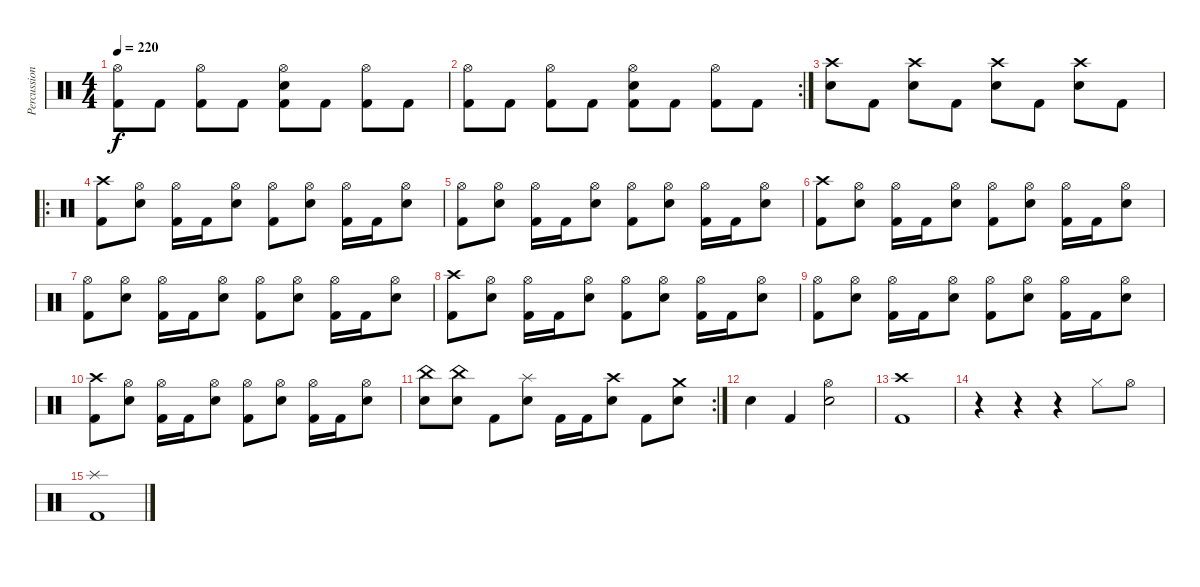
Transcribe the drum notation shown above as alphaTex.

\track ("Percussions" "Percussion") {instrument percussion}
\staff {score}
\articulation defaults
\ts (4 4)
\tempo 220
\clef neutral
\ks c
("Hi-Hat (open)" "Kick (hit) 2").8{dy f} "Kick (hit) 2".8 ("Hi-Hat (open)" "Kick (hit) 2").8 "Kick (hit) 2".8 ("Hi-Hat (open)" "Snare (hit) 2" "Kick (hit) 2").8 "Kick (hit) 2".8 ("Hi-Hat (open)" "Kick (hit) 2").8 "Kick (hit) 2".8 |
\rc 2
("Hi-Hat (open)" "Kick (hit) 2").8 "Kick (hit) 2".8 ("Hi-Hat (open)" "Kick (hit) 2").8 "Kick (hit) 2".8 ("Hi-Hat (open)" "Snare (hit) 2" "Kick (hit) 2").8 "Kick (hit) 2".8 ("Hi-Hat (open)" "Kick (hit) 2").8 "Kick (hit) 2".8 |
("Crash high (hit)" "Snare (hit) 2").8 "Kick (hit) 2".8 ("Crash high (hit)" "Snare (hit) 2").8 "Kick (hit) 2".8 ("Crash high (hit)" "Snare (hit) 2").8 "Kick (hit) 2".8 ("Crash high (hit)" "Snare (hit) 2").8 "Kick (hit) 2".8 |
\ro
("Crash high (hit)" "Kick (hit) 2").8 ("Hi-Hat (open)" "Snare (hit) 2").8 ("Hi-Hat (open)" "Kick (hit) 2").16 "Kick (hit) 2".16 ("Hi-Hat (open)" "Snare (hit) 2").8 ("Hi-Hat (open)" "Kick (hit) 2").8 ("Hi-Hat (open)" "Snare (hit) 2").8 ("Hi-Hat (open)" "Kick (hit) 2").16 "Kick (hit) 2".16 ("Hi-Hat (open)" "Snare (hit) 2").8 |
("Hi-Hat (open)" "Kick (hit) 2").8 ("Hi-Hat (open)" "Snare (hit) 2").8 ("Hi-Hat (open)" "Kick (hit) 2").16 "Kick (hit) 2".16 ("Hi-Hat (open)" "Snare (hit) 2").8 ("Hi-Hat (open)" "Kick (hit) 2").8 ("Hi-Hat (open)" "Snare (hit) 2").8 ("Hi-Hat (open)" "Kick (hit) 2").16 "Kick (hit) 2".16 ("Hi-Hat (open)" "Snare (hit) 2").8 |
("Crash high (hit)" "Kick (hit) 2").8 ("Hi-Hat (open)" "Snare (hit) 2").8 ("Hi-Hat (open)" "Kick (hit) 2").16 "Kick (hit) 2".16 ("Hi-Hat (open)" "Snare (hit) 2").8 ("Hi-Hat (open)" "Kick (hit) 2").8 ("Hi-Hat (open)" "Snare (hit) 2").8 ("Hi-Hat (open)" "Kick (hit) 2").16 "Kick (hit) 2".16 ("Hi-Hat (open)" "Snare (hit) 2").8 |
("Hi-Hat (open)" "Kick (hit) 2").8 ("Hi-Hat (open)" "Snare (hit) 2").8 ("Hi-Hat (open)" "Kick (hit) 2").16 "Kick (hit) 2".16 ("Hi-Hat (open)" "Snare (hit) 2").8 ("Hi-Hat (open)" "Kick (hit) 2").8 ("Hi-Hat (open)" "Snare (hit) 2").8 ("Hi-Hat (open)" "Kick (hit) 2").16 "Kick (hit) 2".16 ("Hi-Hat (open)" "Snare (hit) 2").8 |
("Crash high (hit)" "Kick (hit) 2").8 ("Hi-Hat (open)" "Snare (hit) 2").8 ("Hi-Hat (open)" "Kick (hit) 2").16 "Kick (hit) 2".16 ("Hi-Hat (open)" "Snare (hit) 2").8 ("Hi-Hat (open)" "Kick (hit) 2").8 ("Hi-Hat (open)" "Snare (hit) 2").8 ("Hi-Hat (open)" "Kick (hit) 2").16 "Kick (hit) 2".16 ("Hi-Hat (open)" "Snare (hit) 2").8 |
("Hi-Hat (open)" "Kick (hit) 2").8 ("Hi-Hat (open)" "Snare (hit) 2").8 ("Hi-Hat (open)" "Kick (hit) 2").16 "Kick (hit) 2".16 ("Hi-Hat (open)" "Snare (hit) 2").8 ("Hi-Hat (open)" "Kick (hit) 2").8 ("Hi-Hat (open)" "Snare (hit) 2").8 ("Hi-Hat (open)" "Kick (hit) 2").16 "Kick (hit) 2".16 ("Hi-Hat (open)" "Snare (hit) 2").8 |
("Crash high (hit)" "Kick (hit) 2").8 ("Hi-Hat (open)" "Snare (hit) 2").8 ("Hi-Hat (open)" "Kick (hit) 2").16 "Kick (hit) 2".16 ("Hi-Hat (open)" "Snare (hit) 2").8 ("Hi-Hat (open)" "Kick (hit) 2").8 ("Hi-Hat (open)" "Snare (hit) 2").8 ("Hi-Hat (open)" "Kick (hit) 2").16 "Kick (hit) 2".16 ("Hi-Hat (open)" "Snare (hit) 2").8 |
\rc 2
("China (hit)" "Snare (hit) 2").8 ("China (hit)" "Snare (hit) 2").8 "Kick (hit) 2".8 ("Splash (hit)" "Snare (hit) 2").8 "Kick (hit) 2".16 "Kick (hit) 2".16 ("Crash high (hit)" "Snare (hit) 2").8 "Kick (hit) 2".8 ("Crash medium (hit)" "Snare (hit) 2").8 |
"Snare (hit) 2".4 "Kick (hit) 2".4 ("Hi-Hat (open)" "Snare (hit) 2").2 |
("Crash high (hit)" "Kick (hit) 2").1 |
r.4 r.4 r.4 "Hi-Hat (closed)".8 "Hi-Hat (open)".8 |
("Splash (hit)" "Kick (hit) 2").1
